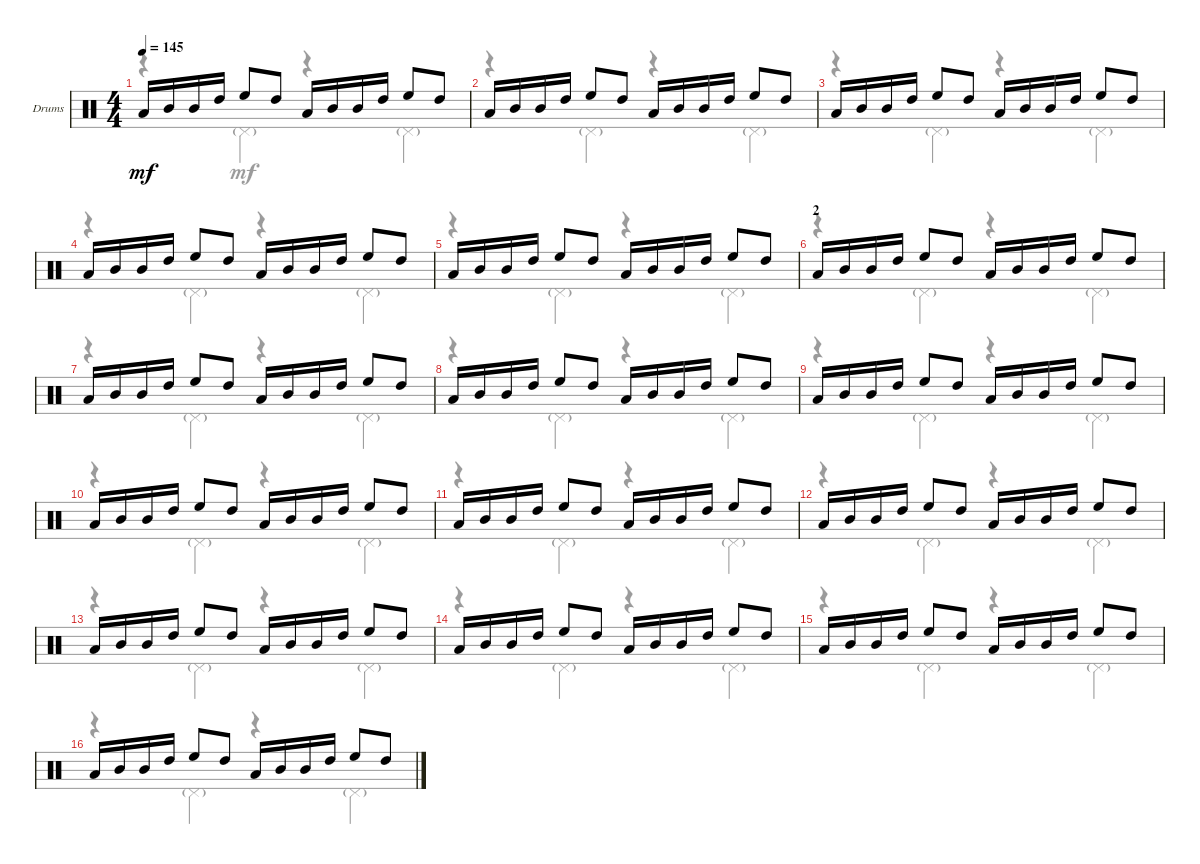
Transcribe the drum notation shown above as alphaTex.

\defaultSystemsLayout 4
\bracketExtendMode groupsimilarinstruments
\firstSystemTrackNameOrientation horizontal
\otherSystemsTrackNameOrientation horizontal
\track ("Drumkit" "Drums") {instrument percussion}
\staff {score}
\articulation defaults
\voice
\ts (4 4)
\tempo 145
\clef neutral
\ks c "Low Tom (hit)".16{dy mf} "Mid Tom (hit)".16 "Mid Tom (hit)".16 "High Tom (hit)".16 "High Floor Tom (hit)".8 "High Tom (hit)".8 "Low Tom (hit)".16 "Mid Tom (hit)".16 "Mid Tom (hit)".16 "High Tom (hit)".16 "High Floor Tom (hit)".8 "High Tom (hit)".8
|
"Low Tom (hit)".16 "Mid Tom (hit)".16 "Mid Tom (hit)".16 "High Tom (hit)".16 "High Floor Tom (hit)".8 "High Tom (hit)".8 "Low Tom (hit)".16 "Mid Tom (hit)".16 "Mid Tom (hit)".16 "High Tom (hit)".16 "High Floor Tom (hit)".8 "High Tom (hit)".8 |
"Low Tom (hit)".16 "Mid Tom (hit)".16 "Mid Tom (hit)".16 "High Tom (hit)".16 "High Floor Tom (hit)".8 "High Tom (hit)".8 "Low Tom (hit)".16 "Mid Tom (hit)".16 "Mid Tom (hit)".16 "High Tom (hit)".16 "High Floor Tom (hit)".8 "High Tom (hit)".8 |
"Low Tom (hit)".16 "Mid Tom (hit)".16 "Mid Tom (hit)".16 "High Tom (hit)".16 "High Floor Tom (hit)".8 "High Tom (hit)".8 "Low Tom (hit)".16 "Mid Tom (hit)".16 "Mid Tom (hit)".16 "High Tom (hit)".16 "High Floor Tom (hit)".8 "High Tom (hit)".8 |
"Low Tom (hit)".16 "Mid Tom (hit)".16 "Mid Tom (hit)".16 "High Tom (hit)".16 "High Floor Tom (hit)".8 "High Tom (hit)".8 "Low Tom (hit)".16 "Mid Tom (hit)".16 "Mid Tom (hit)".16 "High Tom (hit)".16 "High Floor Tom (hit)".8 "High Tom (hit)".8 |
\section ("" "2")
"Low Tom (hit)".16 "Mid Tom (hit)".16 "Mid Tom (hit)".16 "High Tom (hit)".16 "High Floor Tom (hit)".8 "High Tom (hit)".8 "Low Tom (hit)".16 "Mid Tom (hit)".16 "Mid Tom (hit)".16 "High Tom (hit)".16 "High Floor Tom (hit)".8 "High Tom (hit)".8 |
"Low Tom (hit)".16 "Mid Tom (hit)".16 "Mid Tom (hit)".16 "High Tom (hit)".16 "High Floor Tom (hit)".8 "High Tom (hit)".8 "Low Tom (hit)".16 "Mid Tom (hit)".16 "Mid Tom (hit)".16 "High Tom (hit)".16 "High Floor Tom (hit)".8 "High Tom (hit)".8 |
"Low Tom (hit)".16 "Mid Tom (hit)".16 "Mid Tom (hit)".16 "High Tom (hit)".16 "High Floor Tom (hit)".8 "High Tom (hit)".8 "Low Tom (hit)".16 "Mid Tom (hit)".16 "Mid Tom (hit)".16 "High Tom (hit)".16 "High Floor Tom (hit)".8 "High Tom (hit)".8 |
"Low Tom (hit)".16 "Mid Tom (hit)".16 "Mid Tom (hit)".16 "High Tom (hit)".16 "High Floor Tom (hit)".8 "High Tom (hit)".8 "Low Tom (hit)".16 "Mid Tom (hit)".16 "Mid Tom (hit)".16 "High Tom (hit)".16 "High Floor Tom (hit)".8 "High Tom (hit)".8 |
"Low Tom (hit)".16 "Mid Tom (hit)".16 "Mid Tom (hit)".16 "High Tom (hit)".16 "High Floor Tom (hit)".8 "High Tom (hit)".8 "Low Tom (hit)".16 "Mid Tom (hit)".16 "Mid Tom (hit)".16 "High Tom (hit)".16 "High Floor Tom (hit)".8 "High Tom (hit)".8 |
"Low Tom (hit)".16 "Mid Tom (hit)".16 "Mid Tom (hit)".16 "High Tom (hit)".16 "High Floor Tom (hit)".8 "High Tom (hit)".8 "Low Tom (hit)".16 "Mid Tom (hit)".16 "Mid Tom (hit)".16 "High Tom (hit)".16 "High Floor Tom (hit)".8 "High Tom (hit)".8 |
"Low Tom (hit)".16 "Mid Tom (hit)".16 "Mid Tom (hit)".16 "High Tom (hit)".16 "High Floor Tom (hit)".8 "High Tom (hit)".8 "Low Tom (hit)".16 "Mid Tom (hit)".16 "Mid Tom (hit)".16 "High Tom (hit)".16 "High Floor Tom (hit)".8 "High Tom (hit)".8 |
"Low Tom (hit)".16 "Mid Tom (hit)".16 "Mid Tom (hit)".16 "High Tom (hit)".16 "High Floor Tom (hit)".8 "High Tom (hit)".8 "Low Tom (hit)".16 "Mid Tom (hit)".16 "Mid Tom (hit)".16 "High Tom (hit)".16 "High Floor Tom (hit)".8 "High Tom (hit)".8 |
"Low Tom (hit)".16 "Mid Tom (hit)".16 "Mid Tom (hit)".16 "High Tom (hit)".16 "High Floor Tom (hit)".8 "High Tom (hit)".8 "Low Tom (hit)".16 "Mid Tom (hit)".16 "Mid Tom (hit)".16 "High Tom (hit)".16 "High Floor Tom (hit)".8 "High Tom (hit)".8 |
"Low Tom (hit)".16 "Mid Tom (hit)".16 "Mid Tom (hit)".16 "High Tom (hit)".16 "High Floor Tom (hit)".8 "High Tom (hit)".8 "Low Tom (hit)".16 "Mid Tom (hit)".16 "Mid Tom (hit)".16 "High Tom (hit)".16 "High Floor Tom (hit)".8 "High Tom (hit)".8 |
"Low Tom (hit)".16 "Mid Tom (hit)".16 "Mid Tom (hit)".16 "High Tom (hit)".16 "High Floor Tom (hit)".8 "High Tom (hit)".8 "Low Tom (hit)".16 "Mid Tom (hit)".16 "Mid Tom (hit)".16 "High Tom (hit)".16 "High Floor Tom (hit)".8 "High Tom (hit)".8
\voice
\clef neutral
\ottava regular
\simile none
\ks c
r.4{dy mf} "Pedal Hi-Hat (hit)"{g}.4 r.4 "Pedal Hi-Hat (hit)"{g}.4 |
r.4 "Pedal Hi-Hat (hit)"{g}.4 r.4 "Pedal Hi-Hat (hit)"{g}.4 |
r.4 "Pedal Hi-Hat (hit)"{g}.4 r.4 "Pedal Hi-Hat (hit)"{g}.4 |
r.4 "Pedal Hi-Hat (hit)"{g}.4 r.4 "Pedal Hi-Hat (hit)"{g}.4 |
r.4 "Pedal Hi-Hat (hit)"{g}.4 r.4 "Pedal Hi-Hat (hit)"{g}.4 |
r.4 "Pedal Hi-Hat (hit)"{g}.4 r.4 "Pedal Hi-Hat (hit)"{g}.4 |
r.4 "Pedal Hi-Hat (hit)"{g}.4 r.4 "Pedal Hi-Hat (hit)"{g}.4 |
r.4 "Pedal Hi-Hat (hit)"{g}.4 r.4 "Pedal Hi-Hat (hit)"{g}.4 |
r.4 "Pedal Hi-Hat (hit)"{g}.4 r.4 "Pedal Hi-Hat (hit)"{g}.4 |
r.4 "Pedal Hi-Hat (hit)"{g}.4 r.4 "Pedal Hi-Hat (hit)"{g}.4 |
r.4 "Pedal Hi-Hat (hit)"{g}.4 r.4 "Pedal Hi-Hat (hit)"{g}.4 |
r.4 "Pedal Hi-Hat (hit)"{g}.4 r.4 "Pedal Hi-Hat (hit)"{g}.4 |
r.4 "Pedal Hi-Hat (hit)"{g}.4 r.4 "Pedal Hi-Hat (hit)"{g}.4 |
r.4 "Pedal Hi-Hat (hit)"{g}.4 r.4 "Pedal Hi-Hat (hit)"{g}.4 |
r.4 "Pedal Hi-Hat (hit)"{g}.4 r.4 "Pedal Hi-Hat (hit)"{g}.4 |
r.4 "Pedal Hi-Hat (hit)"{g}.4 r.4 "Pedal Hi-Hat (hit)"{g}.4
